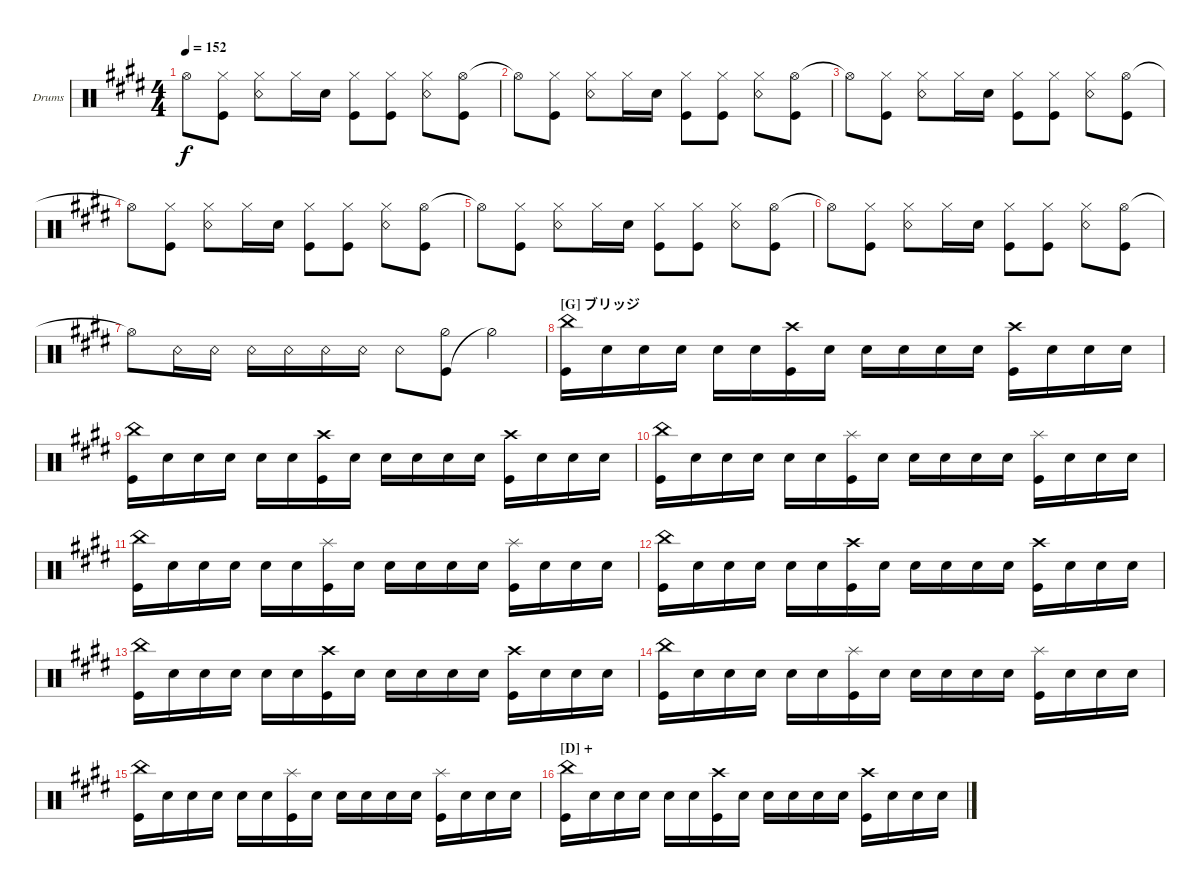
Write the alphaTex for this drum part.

\bracketExtendMode groupsimilarinstruments
\firstSystemTrackNameOrientation horizontal
\otherSystemsTrackNameOrientation horizontal
\track ("Ichigo" "Drums") {instrument percussion}
\staff {score}
\articulation defaults
\ts (4 4)
\tempo 152
\clef neutral
\ks e "Hi-Hat (open)"{t}.8{dy f}
("Hi-Hat (closed)" "Kick (hit)").8 ("Hi-Hat (closed)" "Snare (rim shot)").8 "Hi-Hat (closed)".16 "Snare (hit) 2".16 ("Hi-Hat (closed)" "Kick (hit)").8 ("Hi-Hat (closed)" "Kick (hit)").8 ("Hi-Hat (closed)" "Snare (rim shot)").8 ("Hi-Hat (open)" "Kick (hit)").8 |
"Hi-Hat (open)"{t}.8 ("Hi-Hat (closed)" "Kick (hit)").8 ("Hi-Hat (closed)" "Snare (rim shot)").8 "Hi-Hat (closed)".16 "Snare (hit) 2".16 ("Hi-Hat (closed)" "Kick (hit)").8 ("Hi-Hat (closed)" "Kick (hit)").8 ("Hi-Hat (closed)" "Snare (rim shot)").8 ("Hi-Hat (open)" "Kick (hit)").8 |
"Hi-Hat (open)"{t}.8 ("Hi-Hat (closed)" "Kick (hit)").8 ("Hi-Hat (closed)" "Snare (rim shot)").8 "Hi-Hat (closed)".16 "Snare (hit) 2".16 ("Hi-Hat (closed)" "Kick (hit)").8 ("Hi-Hat (closed)" "Kick (hit)").8 ("Hi-Hat (closed)" "Snare (rim shot)").8 ("Hi-Hat (open)" "Kick (hit)").8 |
"Hi-Hat (open)"{t}.8 ("Hi-Hat (closed)" "Kick (hit)").8 ("Hi-Hat (closed)" "Snare (rim shot)").8 "Hi-Hat (closed)".16 "Snare (hit) 2".16 ("Hi-Hat (closed)" "Kick (hit)").8 ("Hi-Hat (closed)" "Kick (hit)").8 ("Hi-Hat (closed)" "Snare (rim shot)").8 ("Hi-Hat (open)" "Kick (hit)").8 |
"Hi-Hat (open)"{t}.8 ("Hi-Hat (closed)" "Kick (hit)").8 ("Hi-Hat (closed)" "Snare (rim shot)").8 "Hi-Hat (closed)".16 "Snare (hit) 2".16 ("Hi-Hat (closed)" "Kick (hit)").8 ("Hi-Hat (closed)" "Kick (hit)").8 ("Hi-Hat (closed)" "Snare (rim shot)").8 ("Hi-Hat (open)" "Kick (hit)").8 |
"Hi-Hat (open)"{t}.8 ("Hi-Hat (closed)" "Kick (hit)").8 ("Hi-Hat (closed)" "Snare (rim shot)").8 "Hi-Hat (closed)".16 "Snare (hit) 2".16 ("Hi-Hat (closed)" "Kick (hit)").8 ("Hi-Hat (closed)" "Kick (hit)").8 ("Hi-Hat (closed)" "Snare (rim shot)").8 ("Hi-Hat (open)" "Kick (hit)").8 |
"Hi-Hat (open)"{t}.8 "Snare (rim shot)".16 "Snare (rim shot)".16 "Snare (rim shot)".16 "Snare (rim shot)".16 "Snare (rim shot)".16 "Snare (rim shot)".16 "Snare (rim shot)".8 ("Kick (hit)" "Hi-Hat (half)").8 "Hi-Hat (half)"{t}.4 |
\section ("G" "ブリッジ")
("China (hit)" "Kick (hit)").16 "Snare (hit) 2".16 "Snare (hit) 2".16 "Snare (hit) 2".16 "Snare (hit) 2".16 "Snare (hit) 2".16 ("Crash high (hit)" "Kick (hit)").16 "Snare (hit) 2".16 "Snare (hit) 2".16 "Snare (hit) 2".16 "Snare (hit) 2".16 "Snare (hit) 2".16 ("Crash high (hit)" "Kick (hit)").16 "Snare (hit) 2".16 "Snare (hit) 2".16 "Snare (hit) 2".16 |
("China (hit)" "Kick (hit)").16 "Snare (hit) 2".16 "Snare (hit) 2".16 "Snare (hit) 2".16 "Snare (hit) 2".16 "Snare (hit) 2".16 ("Crash high (hit)" "Kick (hit)").16 "Snare (hit) 2".16 "Snare (hit) 2".16 "Snare (hit) 2".16 "Snare (hit) 2".16 "Snare (hit) 2".16 ("Crash high (hit)" "Kick (hit)").16 "Snare (hit) 2".16 "Snare (hit) 2".16 "Snare (hit) 2".16 |
("China (hit)" "Kick (hit)").16 "Snare (hit) 2".16 "Snare (hit) 2".16 "Snare (hit) 2".16 "Snare (hit) 2".16 "Snare (hit) 2".16 ("Kick (hit)" "Splash (hit)").16 "Snare (hit) 2".16 "Snare (hit) 2".16 "Snare (hit) 2".16 "Snare (hit) 2".16 "Snare (hit) 2".16 ("Kick (hit)" "Splash (hit)").16 "Snare (hit) 2".16 "Snare (hit) 2".16 "Snare (hit) 2".16 |
("China (hit)" "Kick (hit)").16 "Snare (hit) 2".16 "Snare (hit) 2".16 "Snare (hit) 2".16 "Snare (hit) 2".16 "Snare (hit) 2".16 ("Kick (hit)" "Splash (hit)").16 "Snare (hit) 2".16 "Snare (hit) 2".16 "Snare (hit) 2".16 "Snare (hit) 2".16 "Snare (hit) 2".16 ("Kick (hit)" "Splash (hit)").16 "Snare (hit) 2".16 "Snare (hit) 2".16 "Snare (hit) 2".16 |
("China (hit)" "Kick (hit)").16 "Snare (hit) 2".16 "Snare (hit) 2".16 "Snare (hit) 2".16 "Snare (hit) 2".16 "Snare (hit) 2".16 ("Crash high (hit)" "Kick (hit)").16 "Snare (hit) 2".16 "Snare (hit) 2".16 "Snare (hit) 2".16 "Snare (hit) 2".16 "Snare (hit) 2".16 ("Crash high (hit)" "Kick (hit)").16 "Snare (hit) 2".16 "Snare (hit) 2".16 "Snare (hit) 2".16 |
("China (hit)" "Kick (hit)").16 "Snare (hit) 2".16 "Snare (hit) 2".16 "Snare (hit) 2".16 "Snare (hit) 2".16 "Snare (hit) 2".16 ("Crash high (hit)" "Kick (hit)").16 "Snare (hit) 2".16 "Snare (hit) 2".16 "Snare (hit) 2".16 "Snare (hit) 2".16 "Snare (hit) 2".16 ("Crash high (hit)" "Kick (hit)").16 "Snare (hit) 2".16 "Snare (hit) 2".16 "Snare (hit) 2".16 |
("China (hit)" "Kick (hit)").16 "Snare (hit) 2".16 "Snare (hit) 2".16 "Snare (hit) 2".16 "Snare (hit) 2".16 "Snare (hit) 2".16 ("Kick (hit)" "Splash (hit)").16 "Snare (hit) 2".16 "Snare (hit) 2".16 "Snare (hit) 2".16 "Snare (hit) 2".16 "Snare (hit) 2".16 ("Kick (hit)" "Splash (hit)").16 "Snare (hit) 2".16 "Snare (hit) 2".16 "Snare (hit) 2".16 |
("China (hit)" "Kick (hit)").16 "Snare (hit) 2".16 "Snare (hit) 2".16 "Snare (hit) 2".16 "Snare (hit) 2".16 "Snare (hit) 2".16 ("Kick (hit)" "Splash (hit)").16 "Snare (hit) 2".16 "Snare (hit) 2".16 "Snare (hit) 2".16 "Snare (hit) 2".16 "Snare (hit) 2".16 ("Kick (hit)" "Splash (hit)").16 "Snare (hit) 2".16 "Snare (hit) 2".16 "Snare (hit) 2".16 |
\section ("D" "+")
("China (hit)" "Kick (hit)").16 "Snare (hit) 2".16 "Snare (hit) 2".16 "Snare (hit) 2".16 "Snare (hit) 2".16 "Snare (hit) 2".16 ("Crash high (hit)" "Kick (hit)").16 "Snare (hit) 2".16 "Snare (hit) 2".16 "Snare (hit) 2".16 "Snare (hit) 2".16 "Snare (hit) 2".16 ("Crash high (hit)" "Kick (hit)").16 "Snare (hit) 2".16 "Snare (hit) 2".16 "Snare (hit) 2".16
